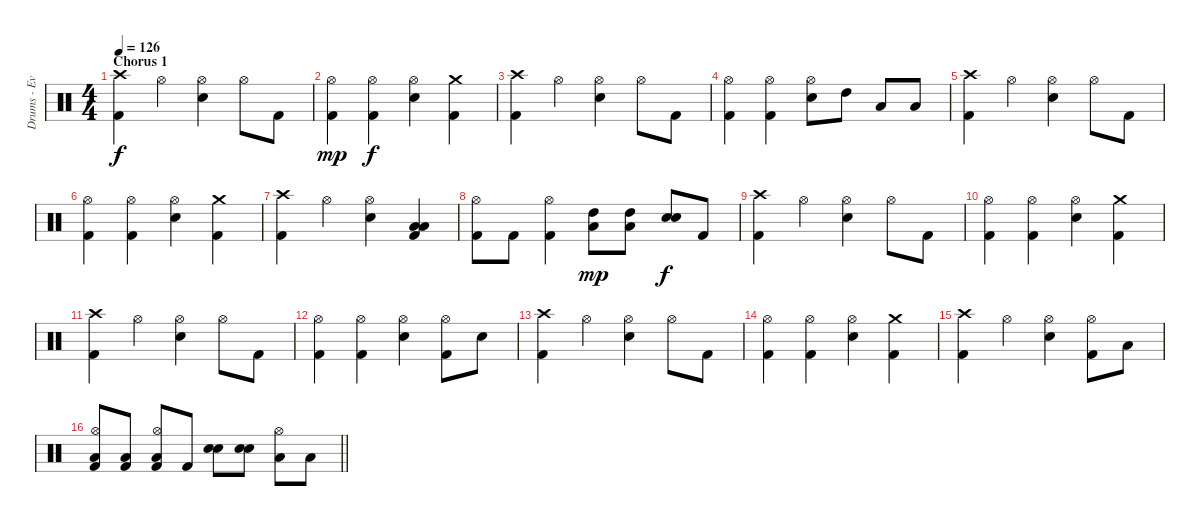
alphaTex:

\track ("Drums - Evans" "Drums - Ev") {instrument percussion}
\staff {score}
\articulation defaults
\ts (4 4)
\section ("" "Chorus 1")
\tempo 126
\clef neutral
\ks c
("Crash high (hit)" "Kick (hit) 2").4{dy f} "Hi-Hat (open)".4 ("Hi-Hat (open)" "Electric Snare (hit)").4 "Hi-Hat (open)".8 "Kick (hit) 2".8 |
("Hi-Hat (open)" "Kick (hit) 2").4{dy mp} ("Hi-Hat (open)" "Kick (hit) 2").4{dy f} ("Hi-Hat (open)" "Electric Snare (hit)").4 ("Crash medium (hit)" "Kick (hit) 2").4 |
("Crash high (hit)" "Kick (hit) 2").4 "Hi-Hat (open)".4 ("Hi-Hat (open)" "Electric Snare (hit)").4 "Hi-Hat (open)".8 "Kick (hit) 2".8 |
("Hi-Hat (open)" "Kick (hit) 2").4 ("Hi-Hat (open)" "Kick (hit) 2").4 ("Hi-Hat (open)" "Electric Snare (hit)").8 "High Tom (hit)".8 "Low Floor Tom (hit)".8 "Low Tom (hit)".8 |
("Crash high (hit)" "Kick (hit) 2").4 "Hi-Hat (open)".4 ("Hi-Hat (open)" "Electric Snare (hit)").4 "Hi-Hat (open)".8 "Kick (hit) 2".8 |
("Hi-Hat (open)" "Kick (hit) 2").4 ("Hi-Hat (open)" "Kick (hit) 2").4 ("Hi-Hat (open)" "Electric Snare (hit)").4 ("Crash medium (hit)" "Kick (hit) 2").4 |
("Crash high (hit)" "Kick (hit) 2").4 "Hi-Hat (open)".4 ("Hi-Hat (open)" "Electric Snare (hit)").4 ("Low Tom (hit)" "Low Floor Tom (hit)" "Kick (hit) 2").4 |
("Hi-Hat (open)" "Kick (hit) 2").8 "Kick (hit) 2".8 ("Hi-Hat (open)" "Kick (hit) 2").4 ("Low Tom (hit)" "High Tom (hit)").8{dy mp} ("High Tom (hit)" "Low Tom (hit)").8 ("Electric Snare (hit)" "Electric Snare (hit)").8{dy f} "Kick (hit) 2".8 |
("Crash high (hit)" "Kick (hit) 2").4 "Hi-Hat (open)".4 ("Hi-Hat (open)" "Electric Snare (hit)").4 "Hi-Hat (open)".8 "Kick (hit) 2".8 |
("Hi-Hat (open)" "Kick (hit) 2").4 ("Hi-Hat (open)" "Kick (hit) 2").4 ("Hi-Hat (open)" "Electric Snare (hit)").4 ("Crash medium (hit)" "Kick (hit) 2").4 |
("Crash high (hit)" "Kick (hit) 2").4 "Hi-Hat (open)".4 ("Hi-Hat (open)" "Electric Snare (hit)").4 "Hi-Hat (open)".8 "Kick (hit) 2".8 |
("Hi-Hat (open)" "Kick (hit) 2").4 ("Hi-Hat (open)" "Kick (hit) 2").4 ("Hi-Hat (open)" "Electric Snare (hit)").4 ("Hi-Hat (open)" "Kick (hit) 2").8 "Electric Snare (hit)".8 |
("Crash high (hit)" "Kick (hit) 2").4 "Hi-Hat (open)".4 ("Hi-Hat (open)" "Electric Snare (hit)").4 "Hi-Hat (open)".8 "Kick (hit) 2".8 |
("Hi-Hat (open)" "Kick (hit) 2").4 ("Hi-Hat (open)" "Kick (hit) 2").4 ("Hi-Hat (open)" "Electric Snare (hit)").4 ("Crash medium (hit)" "Kick (hit) 2").4 |
("Crash high (hit)" "Kick (hit) 2").4 "Hi-Hat (open)".4 ("Hi-Hat (open)" "Electric Snare (hit)").4 ("Hi-Hat (open)" "Kick (hit) 2").8 "Low Tom (hit)".8 |
\barLineRight lightlight
("Hi-Hat (open)" "Low Floor Tom (hit)" "Kick (hit) 2").8 ("Low Floor Tom (hit)" "Kick (hit) 2").8 ("Hi-Hat (open)" "Low Floor Tom (hit)" "Kick (hit) 2").8 "Kick (hit) 2".8 ("Electric Snare (hit)" "Electric Snare (hit)").8 ("Electric Snare (hit)" "Electric Snare (hit)").8 ("Hi-Hat (open)" "Low Tom (hit)").8 "Low Floor Tom (hit)".8
